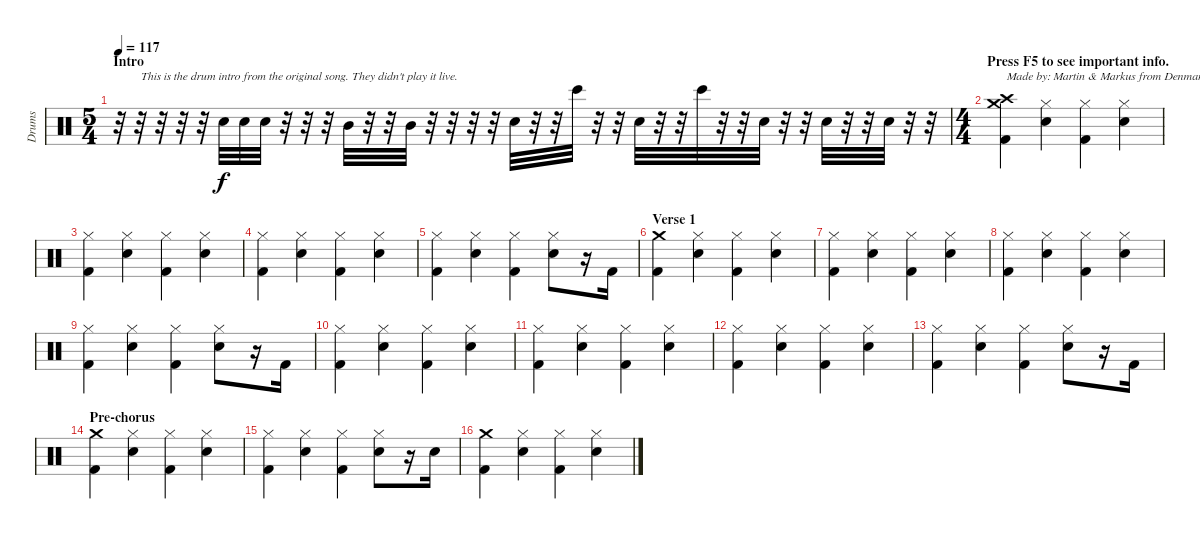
\track ("Drums" "Drums") {instrument percussion}
\staff {score}
\articulation defaults
\ts (5 4)
\section ("" "Intro")
\tempo 117
\clef neutral
\ks c
r.32{dy f} r.32{txt "This is the drum intro from the original song. They didn't play it live."} r.32 r.32 r.32 "Snare (hit) 2".32 "Snare (hit) 2".32 "Snare (hit) 2".32 r.32 r.32 r.32 "Mid Tom (hit)".32 r.32 r.32 "Mid Tom (hit)".32 r.32 r.32 r.32 r.32 "Snare (hit) 2".32 r.32 r.32 "Bongo High (hit)".32 r.32 r.32 "Snare (hit) 2".32 r.32 r.32 "Bongo High (hit)".32 r.32 r.32 "Snare (hit) 2".32 r.32 r.32 "Snare (hit) 2".32 r.32 r.32 "Snare (hit) 2".32 r.32 r.32 |
\ts (4 4)
\section ("" "Press F5 to see important info.")
("Crash high (hit)" "Crash medium (hit)" "Kick (hit) 2").4{txt "Made by: Martin & Markus from Denmark"} ("Hi-Hat (closed)" "Snare (hit) 2").4 ("Hi-Hat (closed)" "Kick (hit) 2").4 ("Hi-Hat (closed)" "Snare (hit) 2").4 |
("Hi-Hat (closed)" "Kick (hit) 2").4 ("Hi-Hat (closed)" "Snare (hit) 2").4 ("Hi-Hat (closed)" "Kick (hit) 2").4 ("Hi-Hat (closed)" "Snare (hit) 2").4 |
("Hi-Hat (closed)" "Kick (hit) 2").4 ("Hi-Hat (closed)" "Snare (hit) 2").4 ("Hi-Hat (closed)" "Kick (hit) 2").4 ("Hi-Hat (closed)" "Snare (hit) 2").4 |
("Hi-Hat (closed)" "Kick (hit) 2").4 ("Hi-Hat (closed)" "Snare (hit) 2").4 ("Hi-Hat (closed)" "Kick (hit) 2").4 ("Hi-Hat (closed)" "Snare (hit) 2").8 r.16 "Kick (hit) 2".16 |
\section ("" "Verse 1")
("Crash medium (hit)" "Kick (hit) 2").4 ("Hi-Hat (closed)" "Snare (hit) 2").4 ("Hi-Hat (closed)" "Kick (hit) 2").4 ("Hi-Hat (closed)" "Snare (hit) 2").4 |
("Hi-Hat (closed)" "Kick (hit) 2").4 ("Hi-Hat (closed)" "Snare (hit) 2").4 ("Hi-Hat (closed)" "Kick (hit) 2").4 ("Hi-Hat (closed)" "Snare (hit) 2").4 |
("Hi-Hat (closed)" "Kick (hit) 2").4 ("Hi-Hat (closed)" "Snare (hit) 2").4 ("Hi-Hat (closed)" "Kick (hit) 2").4 ("Hi-Hat (closed)" "Snare (hit) 2").4 |
("Hi-Hat (closed)" "Kick (hit) 2").4 ("Hi-Hat (closed)" "Snare (hit) 2").4 ("Hi-Hat (closed)" "Kick (hit) 2").4 ("Hi-Hat (closed)" "Snare (hit) 2").8 r.16 "Kick (hit) 2".16 |
("Hi-Hat (closed)" "Kick (hit) 2").4 ("Hi-Hat (closed)" "Snare (hit) 2").4 ("Hi-Hat (closed)" "Kick (hit) 2").4 ("Hi-Hat (closed)" "Snare (hit) 2").4 |
("Hi-Hat (closed)" "Kick (hit) 2").4 ("Hi-Hat (closed)" "Snare (hit) 2").4 ("Hi-Hat (closed)" "Kick (hit) 2").4 ("Hi-Hat (closed)" "Snare (hit) 2").4 |
("Hi-Hat (closed)" "Kick (hit) 2").4 ("Hi-Hat (closed)" "Snare (hit) 2").4 ("Hi-Hat (closed)" "Kick (hit) 2").4 ("Hi-Hat (closed)" "Snare (hit) 2").4 |
("Hi-Hat (closed)" "Kick (hit) 2").4 ("Hi-Hat (closed)" "Snare (hit) 2").4 ("Hi-Hat (closed)" "Kick (hit) 2").4 ("Hi-Hat (closed)" "Snare (hit) 2").8 r.16 "Kick (hit) 2".16 |
\section ("" "Pre-chorus")
("Crash medium (hit)" "Kick (hit) 2").4 ("Hi-Hat (closed)" "Snare (hit) 2").4 ("Hi-Hat (closed)" "Kick (hit) 2").4 ("Hi-Hat (closed)" "Snare (hit) 2").4 |
("Hi-Hat (closed)" "Kick (hit) 2").4 ("Hi-Hat (closed)" "Snare (hit) 2").4 ("Hi-Hat (closed)" "Kick (hit) 2").4 ("Hi-Hat (closed)" "Snare (hit) 2").8 r.16 "Snare (hit) 2".16 |
("Crash medium (hit)" "Kick (hit) 2").4 ("Hi-Hat (closed)" "Snare (hit) 2").4 ("Hi-Hat (closed)" "Kick (hit) 2").4 ("Hi-Hat (closed)" "Snare (hit) 2").4
